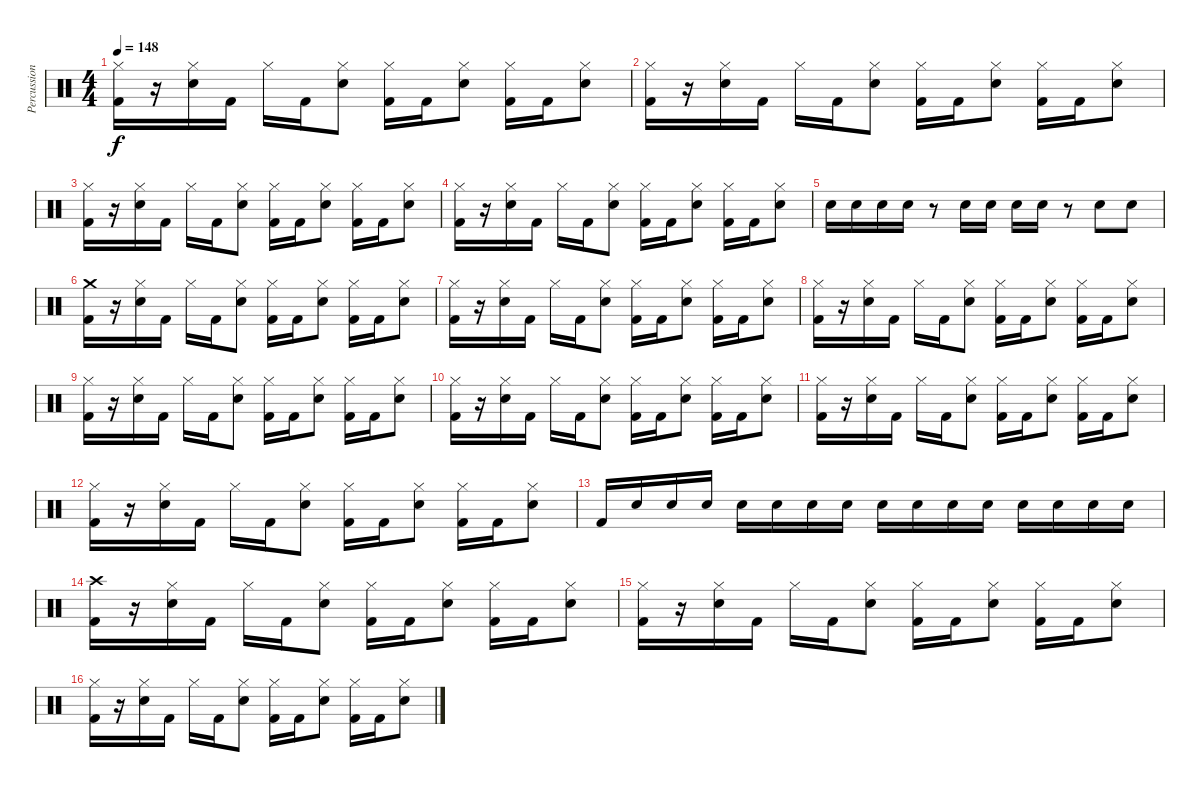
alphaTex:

\track ("Percussion" "Percussion") {instrument percussion}
\staff {score}
\articulation defaults
\ts (4 4)
\tempo 148
\clef neutral
\ks c
("Hi-Hat (closed)" "Kick (hit) 2").16{dy f} r.16 ("Hi-Hat (closed)" "Snare (hit) 2").16 "Kick (hit) 2".16 "Hi-Hat (closed)".16 "Kick (hit) 2".16 ("Hi-Hat (closed)" "Snare (hit) 2").8 ("Hi-Hat (closed)" "Kick (hit) 2").16 "Kick (hit) 2".16 ("Hi-Hat (closed)" "Snare (hit) 2").8 ("Hi-Hat (closed)" "Kick (hit) 2").16 "Kick (hit) 2".16 ("Hi-Hat (closed)" "Snare (hit) 2").8 |
("Hi-Hat (closed)" "Kick (hit) 2").16 r.16 ("Hi-Hat (closed)" "Snare (hit) 2").16 "Kick (hit) 2".16 "Hi-Hat (closed)".16 "Kick (hit) 2".16 ("Hi-Hat (closed)" "Snare (hit) 2").8 ("Hi-Hat (closed)" "Kick (hit) 2").16 "Kick (hit) 2".16 ("Hi-Hat (closed)" "Snare (hit) 2").8 ("Hi-Hat (closed)" "Kick (hit) 2").16 "Kick (hit) 2".16 ("Hi-Hat (closed)" "Snare (hit) 2").8 |
("Hi-Hat (closed)" "Kick (hit) 2").16 r.16 ("Hi-Hat (closed)" "Snare (hit) 2").16 "Kick (hit) 2".16 "Hi-Hat (closed)".16 "Kick (hit) 2".16 ("Hi-Hat (closed)" "Snare (hit) 2").8 ("Hi-Hat (closed)" "Kick (hit) 2").16 "Kick (hit) 2".16 ("Hi-Hat (closed)" "Snare (hit) 2").8 ("Hi-Hat (closed)" "Kick (hit) 2").16 "Kick (hit) 2".16 ("Hi-Hat (closed)" "Snare (hit) 2").8 |
("Hi-Hat (closed)" "Kick (hit) 2").16 r.16 ("Hi-Hat (closed)" "Snare (hit) 2").16 "Kick (hit) 2".16 "Hi-Hat (closed)".16 "Kick (hit) 2".16 ("Hi-Hat (closed)" "Snare (hit) 2").8 ("Hi-Hat (closed)" "Kick (hit) 2").16 "Kick (hit) 2".16 ("Hi-Hat (closed)" "Snare (hit) 2").8 ("Hi-Hat (closed)" "Kick (hit) 2").16 "Kick (hit) 2".16 ("Hi-Hat (closed)" "Snare (hit) 2").8 |
"Snare (hit) 2".16 "Snare (hit) 2".16 "Snare (hit) 2".16 "Snare (hit) 2".16 r.8 "Snare (hit) 2".16 "Snare (hit) 2".16 "Snare (hit) 2".16 "Snare (hit) 2".16 r.8 "Snare (hit) 2".8 "Snare (hit) 2".8 |
("Crash medium (hit)" "Kick (hit) 2").16 r.16 ("Hi-Hat (closed)" "Snare (hit) 2").16 "Kick (hit) 2".16 "Hi-Hat (closed)".16 "Kick (hit) 2".16 ("Hi-Hat (closed)" "Snare (hit) 2").8 ("Hi-Hat (closed)" "Kick (hit) 2").16 "Kick (hit) 2".16 ("Hi-Hat (closed)" "Snare (hit) 2").8 ("Hi-Hat (closed)" "Kick (hit) 2").16 "Kick (hit) 2".16 ("Hi-Hat (closed)" "Snare (hit) 2").8 |
("Hi-Hat (closed)" "Kick (hit) 2").16 r.16 ("Hi-Hat (closed)" "Snare (hit) 2").16 "Kick (hit) 2".16 "Hi-Hat (closed)".16 "Kick (hit) 2".16 ("Hi-Hat (closed)" "Snare (hit) 2").8 ("Hi-Hat (closed)" "Kick (hit) 2").16 "Kick (hit) 2".16 ("Hi-Hat (closed)" "Snare (hit) 2").8 ("Hi-Hat (closed)" "Kick (hit) 2").16 "Kick (hit) 2".16 ("Hi-Hat (closed)" "Snare (hit) 2").8 |
("Hi-Hat (closed)" "Kick (hit) 2").16 r.16 ("Hi-Hat (closed)" "Snare (hit) 2").16 "Kick (hit) 2".16 "Hi-Hat (closed)".16 "Kick (hit) 2".16 ("Hi-Hat (closed)" "Snare (hit) 2").8 ("Hi-Hat (closed)" "Kick (hit) 2").16 "Kick (hit) 2".16 ("Hi-Hat (closed)" "Snare (hit) 2").8 ("Hi-Hat (closed)" "Kick (hit) 2").16 "Kick (hit) 2".16 ("Hi-Hat (closed)" "Snare (hit) 2").8 |
("Hi-Hat (closed)" "Kick (hit) 2").16 r.16 ("Hi-Hat (closed)" "Snare (hit) 2").16 "Kick (hit) 2".16 "Hi-Hat (closed)".16 "Kick (hit) 2".16 ("Hi-Hat (closed)" "Snare (hit) 2").8 ("Hi-Hat (closed)" "Kick (hit) 2").16 "Kick (hit) 2".16 ("Hi-Hat (closed)" "Snare (hit) 2").8 ("Hi-Hat (closed)" "Kick (hit) 2").16 "Kick (hit) 2".16 ("Hi-Hat (closed)" "Snare (hit) 2").8 |
("Hi-Hat (closed)" "Kick (hit) 2").16 r.16 ("Hi-Hat (closed)" "Snare (hit) 2").16 "Kick (hit) 2".16 "Hi-Hat (closed)".16 "Kick (hit) 2".16 ("Hi-Hat (closed)" "Snare (hit) 2").8 ("Hi-Hat (closed)" "Kick (hit) 2").16 "Kick (hit) 2".16 ("Hi-Hat (closed)" "Snare (hit) 2").8 ("Hi-Hat (closed)" "Kick (hit) 2").16 "Kick (hit) 2".16 ("Hi-Hat (closed)" "Snare (hit) 2").8 |
("Hi-Hat (closed)" "Kick (hit) 2").16 r.16 ("Hi-Hat (closed)" "Snare (hit) 2").16 "Kick (hit) 2".16 "Hi-Hat (closed)".16 "Kick (hit) 2".16 ("Hi-Hat (closed)" "Snare (hit) 2").8 ("Hi-Hat (closed)" "Kick (hit) 2").16 "Kick (hit) 2".16 ("Hi-Hat (closed)" "Snare (hit) 2").8 ("Hi-Hat (closed)" "Kick (hit) 2").16 "Kick (hit) 2".16 ("Hi-Hat (closed)" "Snare (hit) 2").8 |
("Hi-Hat (closed)" "Kick (hit) 2").16 r.16 ("Hi-Hat (closed)" "Snare (hit) 2").16 "Kick (hit) 2".16 "Hi-Hat (closed)".16 "Kick (hit) 2".16 ("Hi-Hat (closed)" "Snare (hit) 2").8 ("Hi-Hat (closed)" "Kick (hit) 2").16 "Kick (hit) 2".16 ("Hi-Hat (closed)" "Snare (hit) 2").8 ("Hi-Hat (closed)" "Kick (hit) 2").16 "Kick (hit) 2".16 ("Hi-Hat (closed)" "Snare (hit) 2").8 |
"Kick (hit) 2".16 "Snare (hit) 2".16 "Snare (hit) 2".16 "Snare (hit) 2".16 "Snare (hit) 2".16 "Snare (hit) 2".16 "Snare (hit) 2".16 "Snare (hit) 2".16 "Snare (hit) 2".16 "Snare (hit) 2".16 "Snare (hit) 2".16 "Snare (hit) 2".16 "Snare (hit) 2".16 "Snare (hit) 2".16 "Snare (hit) 2".16 "Snare (hit) 2".16 |
("Crash high (hit)" "Kick (hit) 2").16 r.16 ("Hi-Hat (closed)" "Snare (hit) 2").16 "Kick (hit) 2".16 "Hi-Hat (closed)".16 "Kick (hit) 2".16 ("Hi-Hat (closed)" "Snare (hit) 2").8 ("Hi-Hat (closed)" "Kick (hit) 2").16 "Kick (hit) 2".16 ("Hi-Hat (closed)" "Snare (hit) 2").8 ("Hi-Hat (closed)" "Kick (hit) 2").16 "Kick (hit) 2".16 ("Hi-Hat (closed)" "Snare (hit) 2").8 |
("Hi-Hat (closed)" "Kick (hit) 2").16 r.16 ("Hi-Hat (closed)" "Snare (hit) 2").16 "Kick (hit) 2".16 "Hi-Hat (closed)".16 "Kick (hit) 2".16 ("Hi-Hat (closed)" "Snare (hit) 2").8 ("Hi-Hat (closed)" "Kick (hit) 2").16 "Kick (hit) 2".16 ("Hi-Hat (closed)" "Snare (hit) 2").8 ("Hi-Hat (closed)" "Kick (hit) 2").16 "Kick (hit) 2".16 ("Hi-Hat (closed)" "Snare (hit) 2").8 |
("Hi-Hat (closed)" "Kick (hit) 2").16 r.16 ("Hi-Hat (closed)" "Snare (hit) 2").16 "Kick (hit) 2".16 "Hi-Hat (closed)".16 "Kick (hit) 2".16 ("Hi-Hat (closed)" "Snare (hit) 2").8 ("Hi-Hat (closed)" "Kick (hit) 2").16 "Kick (hit) 2".16 ("Hi-Hat (closed)" "Snare (hit) 2").8 ("Hi-Hat (closed)" "Kick (hit) 2").16 "Kick (hit) 2".16 ("Hi-Hat (closed)" "Snare (hit) 2").8
